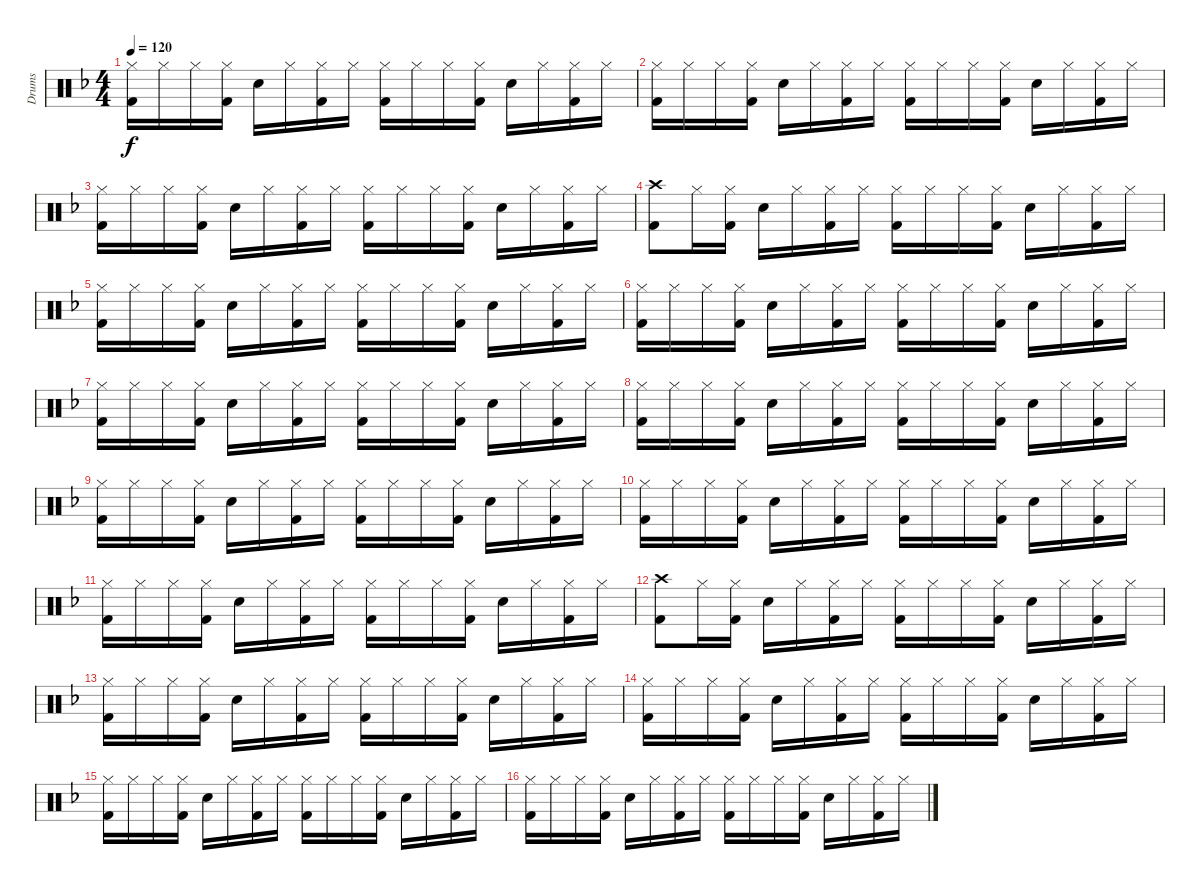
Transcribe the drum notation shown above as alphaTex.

\track ("Drums" "Drums") {instrument percussion}
\staff {score}
\articulation defaults
\ts (4 4)
\tempo 120
\clef neutral
\ks dminor
("Kick (hit) 2" "Hi-Hat (closed)").16{dy f} "Hi-Hat (closed)".16 "Hi-Hat (closed)".16 ("Kick (hit) 2" "Hi-Hat (closed)").16 "Snare (hit) 2".16 "Hi-Hat (closed)".16 ("Kick (hit) 2" "Hi-Hat (closed)").16 "Hi-Hat (closed)".16 ("Kick (hit) 2" "Hi-Hat (closed)").16 "Hi-Hat (closed)".16 "Hi-Hat (closed)".16 ("Kick (hit) 2" "Hi-Hat (closed)").16 "Snare (hit) 2".16 "Hi-Hat (closed)".16 ("Kick (hit) 2" "Hi-Hat (closed)").16 "Hi-Hat (closed)".16 |
("Kick (hit) 2" "Hi-Hat (closed)").16 "Hi-Hat (closed)".16 "Hi-Hat (closed)".16 ("Kick (hit) 2" "Hi-Hat (closed)").16 "Snare (hit) 2".16 "Hi-Hat (closed)".16 ("Kick (hit) 2" "Hi-Hat (closed)").16 "Hi-Hat (closed)".16 ("Kick (hit) 2" "Hi-Hat (closed)").16 "Hi-Hat (closed)".16 "Hi-Hat (closed)".16 ("Kick (hit) 2" "Hi-Hat (closed)").16 "Snare (hit) 2".16 "Hi-Hat (closed)".16 ("Kick (hit) 2" "Hi-Hat (closed)").16 "Hi-Hat (closed)".16 |
("Kick (hit) 2" "Hi-Hat (closed)").16 "Hi-Hat (closed)".16 "Hi-Hat (closed)".16 ("Kick (hit) 2" "Hi-Hat (closed)").16 "Snare (hit) 2".16 "Hi-Hat (closed)".16 ("Kick (hit) 2" "Hi-Hat (closed)").16 "Hi-Hat (closed)".16 ("Kick (hit) 2" "Hi-Hat (closed)").16 "Hi-Hat (closed)".16 "Hi-Hat (closed)".16 ("Kick (hit) 2" "Hi-Hat (closed)").16 "Snare (hit) 2".16 "Hi-Hat (closed)".16 ("Kick (hit) 2" "Hi-Hat (closed)").16 "Hi-Hat (closed)".16 |
("Kick (hit) 2" "Crash high (hit)").8 "Hi-Hat (closed)".16 ("Kick (hit) 2" "Hi-Hat (closed)").16 "Snare (hit) 2".16 "Hi-Hat (closed)".16 ("Kick (hit) 2" "Hi-Hat (closed)").16 "Hi-Hat (closed)".16 ("Kick (hit) 2" "Hi-Hat (closed)").16 "Hi-Hat (closed)".16 "Hi-Hat (closed)".16 ("Kick (hit) 2" "Hi-Hat (closed)").16 "Snare (hit) 2".16 "Hi-Hat (closed)".16 ("Kick (hit) 2" "Hi-Hat (closed)").16 "Hi-Hat (closed)".16 |
("Kick (hit) 2" "Hi-Hat (closed)").16 "Hi-Hat (closed)".16 "Hi-Hat (closed)".16 ("Kick (hit) 2" "Hi-Hat (closed)").16 "Snare (hit) 2".16 "Hi-Hat (closed)".16 ("Kick (hit) 2" "Hi-Hat (closed)").16 "Hi-Hat (closed)".16 ("Kick (hit) 2" "Hi-Hat (closed)").16 "Hi-Hat (closed)".16 "Hi-Hat (closed)".16 ("Kick (hit) 2" "Hi-Hat (closed)").16 "Snare (hit) 2".16 "Hi-Hat (closed)".16 ("Kick (hit) 2" "Hi-Hat (closed)").16 "Hi-Hat (closed)".16 |
("Kick (hit) 2" "Hi-Hat (closed)").16 "Hi-Hat (closed)".16 "Hi-Hat (closed)".16 ("Kick (hit) 2" "Hi-Hat (closed)").16 "Snare (hit) 2".16 "Hi-Hat (closed)".16 ("Kick (hit) 2" "Hi-Hat (closed)").16 "Hi-Hat (closed)".16 ("Kick (hit) 2" "Hi-Hat (closed)").16 "Hi-Hat (closed)".16 "Hi-Hat (closed)".16 ("Kick (hit) 2" "Hi-Hat (closed)").16 "Snare (hit) 2".16 "Hi-Hat (closed)".16 ("Kick (hit) 2" "Hi-Hat (closed)").16 "Hi-Hat (closed)".16 |
("Kick (hit) 2" "Hi-Hat (closed)").16 "Hi-Hat (closed)".16 "Hi-Hat (closed)".16 ("Kick (hit) 2" "Hi-Hat (closed)").16 "Snare (hit) 2".16 "Hi-Hat (closed)".16 ("Kick (hit) 2" "Hi-Hat (closed)").16 "Hi-Hat (closed)".16 ("Kick (hit) 2" "Hi-Hat (closed)").16 "Hi-Hat (closed)".16 "Hi-Hat (closed)".16 ("Kick (hit) 2" "Hi-Hat (closed)").16 "Snare (hit) 2".16 "Hi-Hat (closed)".16 ("Kick (hit) 2" "Hi-Hat (closed)").16 "Hi-Hat (closed)".16 |
("Kick (hit) 2" "Hi-Hat (closed)").16 "Hi-Hat (closed)".16 "Hi-Hat (closed)".16 ("Kick (hit) 2" "Hi-Hat (closed)").16 "Snare (hit) 2".16 "Hi-Hat (closed)".16 ("Kick (hit) 2" "Hi-Hat (closed)").16 "Hi-Hat (closed)".16 ("Kick (hit) 2" "Hi-Hat (closed)").16 "Hi-Hat (closed)".16 "Hi-Hat (closed)".16 ("Kick (hit) 2" "Hi-Hat (closed)").16 "Snare (hit) 2".16 "Hi-Hat (closed)".16 ("Kick (hit) 2" "Hi-Hat (closed)").16 "Hi-Hat (closed)".16 |
("Kick (hit) 2" "Hi-Hat (closed)").16 "Hi-Hat (closed)".16 "Hi-Hat (closed)".16 ("Kick (hit) 2" "Hi-Hat (closed)").16 "Snare (hit) 2".16 "Hi-Hat (closed)".16 ("Kick (hit) 2" "Hi-Hat (closed)").16 "Hi-Hat (closed)".16 ("Kick (hit) 2" "Hi-Hat (closed)").16 "Hi-Hat (closed)".16 "Hi-Hat (closed)".16 ("Kick (hit) 2" "Hi-Hat (closed)").16 "Snare (hit) 2".16 "Hi-Hat (closed)".16 ("Kick (hit) 2" "Hi-Hat (closed)").16 "Hi-Hat (closed)".16 |
("Kick (hit) 2" "Hi-Hat (closed)").16 "Hi-Hat (closed)".16 "Hi-Hat (closed)".16 ("Kick (hit) 2" "Hi-Hat (closed)").16 "Snare (hit) 2".16 "Hi-Hat (closed)".16 ("Kick (hit) 2" "Hi-Hat (closed)").16 "Hi-Hat (closed)".16 ("Kick (hit) 2" "Hi-Hat (closed)").16 "Hi-Hat (closed)".16 "Hi-Hat (closed)".16 ("Kick (hit) 2" "Hi-Hat (closed)").16 "Snare (hit) 2".16 "Hi-Hat (closed)".16 ("Kick (hit) 2" "Hi-Hat (closed)").16 "Hi-Hat (closed)".16 |
("Kick (hit) 2" "Hi-Hat (closed)").16 "Hi-Hat (closed)".16 "Hi-Hat (closed)".16 ("Kick (hit) 2" "Hi-Hat (closed)").16 "Snare (hit) 2".16 "Hi-Hat (closed)".16 ("Kick (hit) 2" "Hi-Hat (closed)").16 "Hi-Hat (closed)".16 ("Kick (hit) 2" "Hi-Hat (closed)").16 "Hi-Hat (closed)".16 "Hi-Hat (closed)".16 ("Kick (hit) 2" "Hi-Hat (closed)").16 "Snare (hit) 2".16 "Hi-Hat (closed)".16 ("Kick (hit) 2" "Hi-Hat (closed)").16 "Hi-Hat (closed)".16 |
("Kick (hit) 2" "Crash high (hit)").8 "Hi-Hat (closed)".16 ("Kick (hit) 2" "Hi-Hat (closed)").16 "Snare (hit) 2".16 "Hi-Hat (closed)".16 ("Kick (hit) 2" "Hi-Hat (closed)").16 "Hi-Hat (closed)".16 ("Kick (hit) 2" "Hi-Hat (closed)").16 "Hi-Hat (closed)".16 "Hi-Hat (closed)".16 ("Kick (hit) 2" "Hi-Hat (closed)").16 "Snare (hit) 2".16 "Hi-Hat (closed)".16 ("Kick (hit) 2" "Hi-Hat (closed)").16 "Hi-Hat (closed)".16 |
("Kick (hit) 2" "Hi-Hat (closed)").16 "Hi-Hat (closed)".16 "Hi-Hat (closed)".16 ("Kick (hit) 2" "Hi-Hat (closed)").16 "Snare (hit) 2".16 "Hi-Hat (closed)".16 ("Kick (hit) 2" "Hi-Hat (closed)").16 "Hi-Hat (closed)".16 ("Kick (hit) 2" "Hi-Hat (closed)").16 "Hi-Hat (closed)".16 "Hi-Hat (closed)".16 ("Kick (hit) 2" "Hi-Hat (closed)").16 "Snare (hit) 2".16 "Hi-Hat (closed)".16 ("Kick (hit) 2" "Hi-Hat (closed)").16 "Hi-Hat (closed)".16 |
("Kick (hit) 2" "Hi-Hat (closed)").16 "Hi-Hat (closed)".16 "Hi-Hat (closed)".16 ("Kick (hit) 2" "Hi-Hat (closed)").16 "Snare (hit) 2".16 "Hi-Hat (closed)".16 ("Kick (hit) 2" "Hi-Hat (closed)").16 "Hi-Hat (closed)".16 ("Kick (hit) 2" "Hi-Hat (closed)").16 "Hi-Hat (closed)".16 "Hi-Hat (closed)".16 ("Kick (hit) 2" "Hi-Hat (closed)").16 "Snare (hit) 2".16 "Hi-Hat (closed)".16 ("Kick (hit) 2" "Hi-Hat (closed)").16 "Hi-Hat (closed)".16 |
("Kick (hit) 2" "Hi-Hat (closed)").16 "Hi-Hat (closed)".16 "Hi-Hat (closed)".16 ("Kick (hit) 2" "Hi-Hat (closed)").16 "Snare (hit) 2".16 "Hi-Hat (closed)".16 ("Kick (hit) 2" "Hi-Hat (closed)").16 "Hi-Hat (closed)".16 ("Kick (hit) 2" "Hi-Hat (closed)").16 "Hi-Hat (closed)".16 "Hi-Hat (closed)".16 ("Kick (hit) 2" "Hi-Hat (closed)").16 "Snare (hit) 2".16 "Hi-Hat (closed)".16 ("Kick (hit) 2" "Hi-Hat (closed)").16 "Hi-Hat (closed)".16 |
("Kick (hit) 2" "Hi-Hat (closed)").16 "Hi-Hat (closed)".16 "Hi-Hat (closed)".16 ("Kick (hit) 2" "Hi-Hat (closed)").16 "Snare (hit) 2".16 "Hi-Hat (closed)".16 ("Kick (hit) 2" "Hi-Hat (closed)").16 "Hi-Hat (closed)".16 ("Kick (hit) 2" "Hi-Hat (closed)").16 "Hi-Hat (closed)".16 "Hi-Hat (closed)".16 ("Kick (hit) 2" "Hi-Hat (closed)").16 "Snare (hit) 2".16 "Hi-Hat (closed)".16 ("Kick (hit) 2" "Hi-Hat (closed)").16 "Hi-Hat (closed)".16
